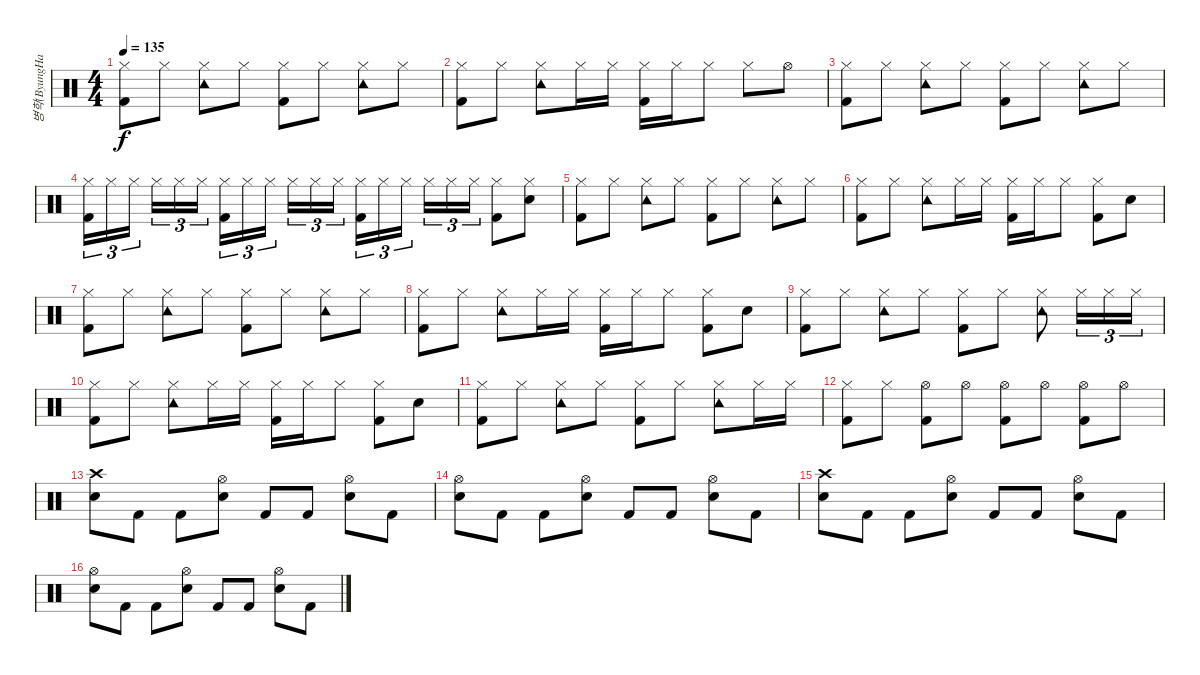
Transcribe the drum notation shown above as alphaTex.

\track ("병학(ByungHak)" "병학(ByungHa") {instrument percussion}
\staff {score}
\articulation defaults
\ts (4 4)
\tempo 135
\clef neutral
\ks c
("Hi-Hat (closed)" "Kick (hit) 2").8{dy f} "Hi-Hat (closed)".8 ("Hi-Hat (closed)" "Tambourine (hit)").8 "Hi-Hat (closed)".8 ("Hi-Hat (closed)" "Kick (hit) 2").8 "Hi-Hat (closed)".8 ("Hi-Hat (closed)" "Tambourine (hit)").8 "Hi-Hat (closed)".8 |
("Hi-Hat (closed)" "Kick (hit) 2").8 "Hi-Hat (closed)".8 ("Hi-Hat (closed)" "Tambourine (hit)").8 "Hi-Hat (closed)".16 "Hi-Hat (closed)".16 ("Hi-Hat (closed)" "Kick (hit) 2").16 "Hi-Hat (closed)".16 "Hi-Hat (closed)".8 "Hi-Hat (closed)".8 "Hi-Hat (open)".8 |
("Hi-Hat (closed)" "Kick (hit) 2").8 "Hi-Hat (closed)".8 ("Hi-Hat (closed)" "Tambourine (hit)").8 "Hi-Hat (closed)".8 ("Hi-Hat (closed)" "Kick (hit) 2").8 "Hi-Hat (closed)".8 ("Hi-Hat (closed)" "Tambourine (hit)").8 "Hi-Hat (closed)".8 |
("Hi-Hat (closed)" "Kick (hit) 2").16{tu (3 2)} "Hi-Hat (closed)".16{tu (3 2)} "Hi-Hat (closed)".16{tu (3 2)} "Hi-Hat (closed)".16{tu (3 2)} "Hi-Hat (closed)".16{tu (3 2)} "Hi-Hat (closed)".16{tu (3 2)} ("Hi-Hat (closed)" "Kick (hit) 2").16{tu (3 2)} "Hi-Hat (closed)".16{tu (3 2)} "Hi-Hat (closed)".16{tu (3 2)} "Hi-Hat (closed)".16{tu (3 2)} "Hi-Hat (closed)".16{tu (3 2)} "Hi-Hat (closed)".16{tu (3 2)} ("Hi-Hat (closed)" "Kick (hit) 2").16{tu (3 2)} "Hi-Hat (closed)".16{tu (3 2)} "Hi-Hat (closed)".16{tu (3 2)} "Hi-Hat (closed)".16{tu (3 2)} "Hi-Hat (closed)".16{tu (3 2)} "Hi-Hat (closed)".16{tu (3 2)} ("Hi-Hat (closed)" "Kick (hit) 2").8 ("Hi-Hat (closed)" "Snare (hit) 2").8 |
("Hi-Hat (closed)" "Kick (hit) 2").8 "Hi-Hat (closed)".8 ("Hi-Hat (closed)" "Tambourine (hit)").8 "Hi-Hat (closed)".8 ("Hi-Hat (closed)" "Kick (hit) 2").8 "Hi-Hat (closed)".8 ("Hi-Hat (closed)" "Tambourine (hit)").8 "Hi-Hat (closed)".8 |
("Hi-Hat (closed)" "Kick (hit) 2").8 "Hi-Hat (closed)".8 ("Hi-Hat (closed)" "Tambourine (hit)").8 "Hi-Hat (closed)".16 "Hi-Hat (closed)".16 ("Hi-Hat (closed)" "Kick (hit) 2").16 "Hi-Hat (closed)".16 "Hi-Hat (closed)".8 ("Hi-Hat (closed)" "Kick (hit) 2").8 "Snare (hit) 2".8 |
("Hi-Hat (closed)" "Kick (hit) 2").8 "Hi-Hat (closed)".8 ("Hi-Hat (closed)" "Tambourine (hit)").8 "Hi-Hat (closed)".8 ("Hi-Hat (closed)" "Kick (hit) 2").8 "Hi-Hat (closed)".8 ("Hi-Hat (closed)" "Tambourine (hit)").8 "Hi-Hat (closed)".8 |
("Hi-Hat (closed)" "Kick (hit) 2").8 "Hi-Hat (closed)".8 ("Hi-Hat (closed)" "Tambourine (hit)").8 "Hi-Hat (closed)".16 "Hi-Hat (closed)".16 ("Hi-Hat (closed)" "Kick (hit) 2").16 "Hi-Hat (closed)".16 "Hi-Hat (closed)".8 ("Hi-Hat (closed)" "Kick (hit) 2").8 "Snare (hit) 2".8 |
("Hi-Hat (closed)" "Kick (hit) 2").8 "Hi-Hat (closed)".8 ("Hi-Hat (closed)" "Tambourine (hit)").8 "Hi-Hat (closed)".8 ("Hi-Hat (closed)" "Kick (hit) 2").8 "Hi-Hat (closed)".8 ("Hi-Hat (closed)" "Tambourine (hit)").8 "Hi-Hat (closed)".16{tu (3 2)} "Hi-Hat (closed)".16{tu (3 2)} "Hi-Hat (closed)".16{tu (3 2)} |
("Hi-Hat (closed)" "Kick (hit) 2").8 "Hi-Hat (closed)".8 ("Hi-Hat (closed)" "Tambourine (hit)").8 "Hi-Hat (closed)".16 "Hi-Hat (closed)".16 ("Hi-Hat (closed)" "Kick (hit) 2").16 "Hi-Hat (closed)".16 "Hi-Hat (closed)".8 ("Hi-Hat (closed)" "Kick (hit) 2").8 "Snare (hit) 2".8 |
("Hi-Hat (closed)" "Kick (hit) 2").8 "Hi-Hat (closed)".8 ("Hi-Hat (closed)" "Tambourine (hit)").8 "Hi-Hat (closed)".8 ("Hi-Hat (closed)" "Kick (hit) 2").8 "Hi-Hat (closed)".8 ("Hi-Hat (closed)" "Tambourine (hit)").8 "Hi-Hat (closed)".16 "Hi-Hat (closed)".16 |
("Hi-Hat (closed)" "Kick (hit) 2").8 "Hi-Hat (closed)".8 ("Hi-Hat (open)" "Kick (hit) 2").8{volume 7} "Hi-Hat (open)".8{volume 8} ("Hi-Hat (open)" "Kick (hit) 2").8{volume 9} "Hi-Hat (open)".8{volume 10} ("Hi-Hat (open)" "Kick (hit) 2").8{volume 12} "Hi-Hat (open)".8{volume 13} |
("Crash high (hit)" "Snare (hit) 2").8 "Kick (hit) 2".8 "Kick (hit) 2".8 ("Hi-Hat (open)" "Snare (hit) 2").8 "Kick (hit) 2".8 "Kick (hit) 2".8 ("Hi-Hat (open)" "Snare (hit) 2").8 "Kick (hit) 2".8 |
("Hi-Hat (open)" "Snare (hit) 2").8 "Kick (hit) 2".8 "Kick (hit) 2".8 ("Hi-Hat (open)" "Snare (hit) 2").8 "Kick (hit) 2".8 "Kick (hit) 2".8 ("Hi-Hat (open)" "Snare (hit) 2").8 "Kick (hit) 2".8 |
("Crash high (hit)" "Snare (hit) 2").8 "Kick (hit) 2".8 "Kick (hit) 2".8 ("Hi-Hat (open)" "Snare (hit) 2").8 "Kick (hit) 2".8 "Kick (hit) 2".8 ("Hi-Hat (open)" "Snare (hit) 2").8 "Kick (hit) 2".8 |
("Hi-Hat (open)" "Snare (hit) 2").8 "Kick (hit) 2".8 "Kick (hit) 2".8 ("Hi-Hat (open)" "Snare (hit) 2").8 "Kick (hit) 2".8 "Kick (hit) 2".8 ("Hi-Hat (open)" "Snare (hit) 2").8 "Kick (hit) 2".8
